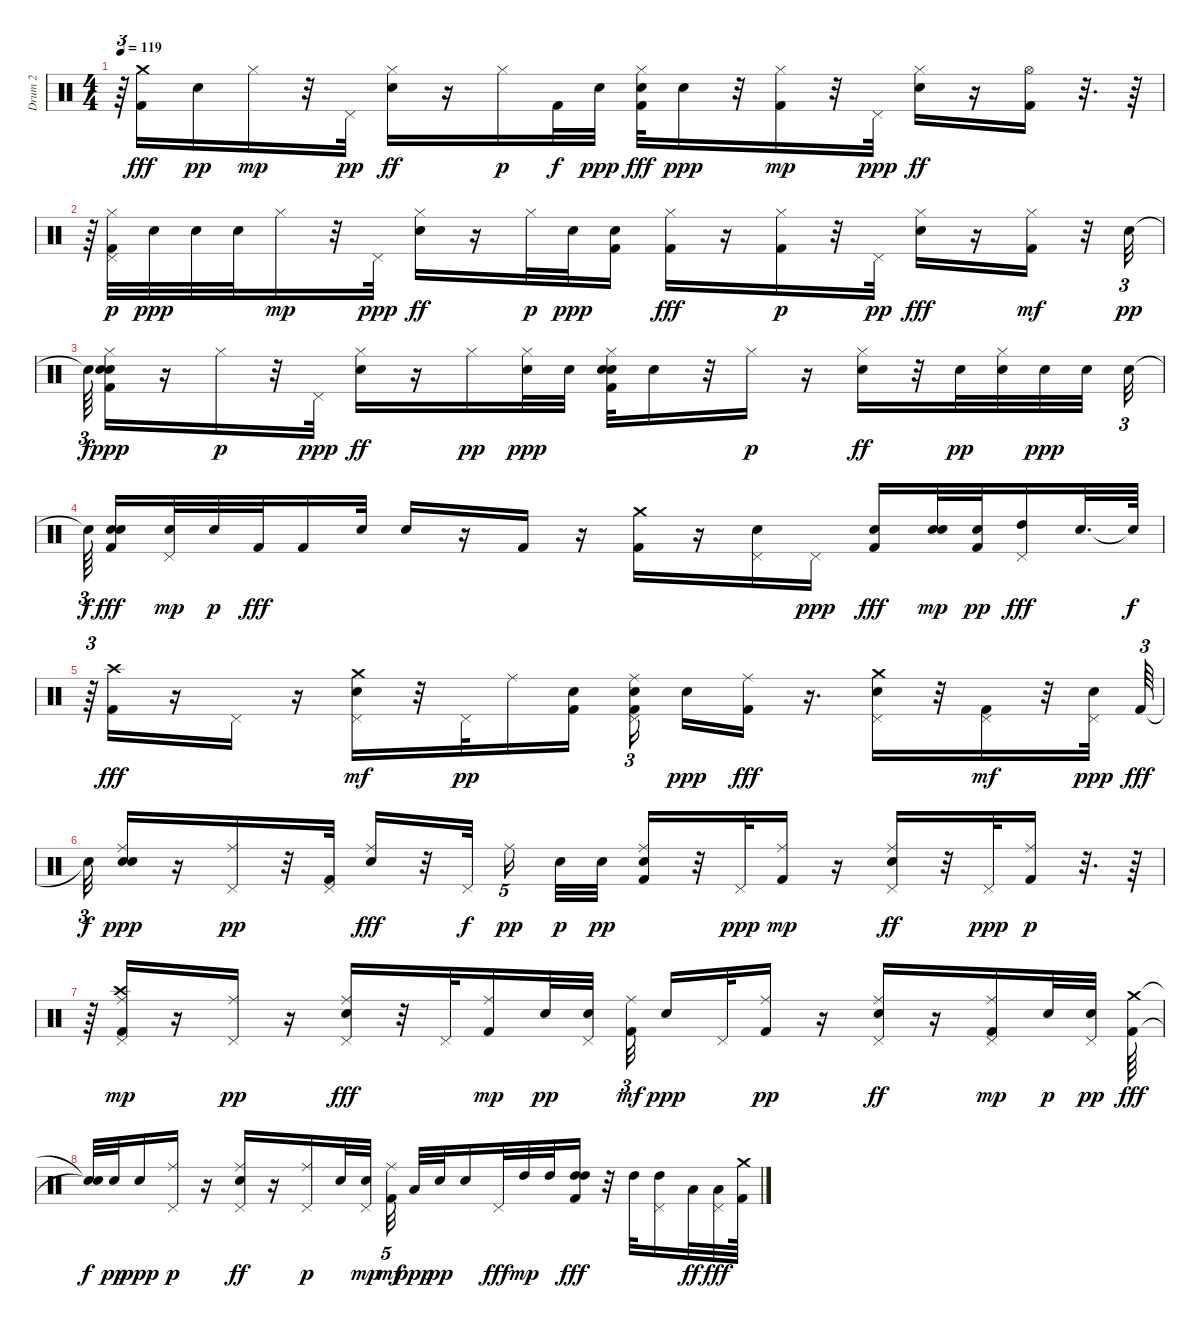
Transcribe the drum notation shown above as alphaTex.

\track ("Drum 2                          " "Drum 2    ") {instrument percussion}
\staff {score}
\articulation defaults
\ts (4 4)
\tempo 119
\clef neutral
\ks c
r.64{tu (3 2) dy f} ("Crash medium (hit)" "Kick (hit) 2").16{dy fff} "Snare (hit) 2".16{dy pp} "Hi-Hat (closed)".16{dy mp} r.32 "Pedal Hi-Hat (hit)".32{dy pp} ("Snare (hit) 2" "Hi-Hat (closed)").16{dy ff} r.16 "Hi-Hat (closed)".16{dy p} "Kick (hit) 2".32{dy f} "Snare (hit) 2".32{dy ppp} ("Snare (hit) 2" "Kick (hit) 2" "Hi-Hat (closed)").32{dy fff} "Snare (hit) 2".16{dy ppp} r.32 ("Kick (hit) 2" "Hi-Hat (closed)").16{dy mp} r.32 "Pedal Hi-Hat (hit)".32{dy ppp} ("Snare (hit) 2" "Hi-Hat (closed)").16{dy ff} r.16 ("Kick (hit) 2" "Hi-Hat (open)").16 r.32{d} r.64 |
r.64{tu (3 2)} ("Pedal Hi-Hat (hit)" "Kick (hit) 2" "Hi-Hat (closed)").32{dy p} "Snare (hit) 2".32{dy ppp} "Snare (hit) 2".32 "Snare (hit) 2".32 "Hi-Hat (closed)".16{dy mp} r.32 "Pedal Hi-Hat (hit)".32{dy ppp} ("Snare (hit) 2" "Hi-Hat (closed)").16{dy ff} r.16 "Hi-Hat (closed)".32{dy p} "Snare (hit) 2".32{dy ppp} ("Snare (hit) 2" "Kick (hit) 2").16 ("Kick (hit) 2" "Hi-Hat (closed)").16{dy fff} r.16 ("Kick (hit) 2" "Hi-Hat (closed)").16{dy p} r.32 "Pedal Hi-Hat (hit)".32{dy pp} ("Snare (hit) 2" "Hi-Hat (closed)").16{dy fff} r.16 ("Kick (hit) 2" "Hi-Hat (closed)").16{dy mf} r.32 "Snare (hit) 2".32{tu (3 2) dy pp} |
"Snare (hit)"{t}.64{tu (3 2) dy f} ("Snare (hit) 2" "Kick (hit) 2" "Hi-Hat (closed)" "Snare (hit) 2").16{dy ppp} r.16 "Hi-Hat (closed)".16{dy p} r.32 "Pedal Hi-Hat (hit)".32{dy ppp} ("Electric Snare (hit)" "Hi-Hat (closed)").16{dy ff} r.16 "Hi-Hat (closed)".16{dy pp} ("Snare (hit) 2" "Hi-Hat (closed)").32{dy ppp} "Snare (hit) 2".32 ("Snare (hit) 2" "Kick (hit) 2" "Hi-Hat (closed)" "Snare (hit) 2").32 "Snare (hit) 2".16 r.32 "Hi-Hat (closed)".16{dy p} r.16 ("Electric Snare (hit)" "Hi-Hat (closed)").16{dy ff} r.32 "Snare (hit) 2".32{dy pp} ("Hi-Hat (closed)" "Snare (hit) 2").32 "Snare (hit) 2".32{dy ppp} "Snare (hit) 2".32{beam splitsecondary} "Snare (hit) 2".32{tu (3 2)} |
"Snare (hit)"{t}.64{tu (3 2) dy f beam splitsecondary} ("Snare (hit) 2" "Snare (hit) 2" "Kick (hit) 2").16{dy fff} ("Snare (hit) 2" "Pedal Hi-Hat (hit)").32{dy mp} "Snare (hit) 2".32{dy p} "Kick (hit) 2".32{dy fff} "Kick (hit) 2".16 "Electric Snare (hit)".32 "Snare (hit) 2".16 r.16 "Kick (hit) 2".16 r.16 ("Crash medium (hit)" "Kick (hit) 2").16 r.16 ("Pedal Hi-Hat (hit)" "Electric Snare (hit)").16 "Pedal Hi-Hat (hit)".16{dy ppp} ("Kick (hit) 2" "Snare (hit) 2").16{dy fff} ("Snare (hit) 2" "Electric Snare (hit)").32{dy mp} ("Snare (hit) 2" "Kick (hit) 2").32{dy pp} ("Pedal Hi-Hat (hit)" "High Tom (hit)").16{dy fff} "Snare (hit) 2".32{d} "Snare (hit)"{t}.64{dy f} |
r.64{tu (3 2)} ("Kick (hit) 2" "Crash high (hit)").16{dy fff} r.16 "Pedal Hi-Hat (hit)".16 r.16 ("Pedal Hi-Hat (hit)" "Snare (hit) 2" "Crash medium (hit)").16{dy mf} r.32 "Pedal Hi-Hat (hit)".32{dy pp} "Ride (middle)".16 ("Kick (hit) 2" "Snare (hit) 2").16 ("Pedal Hi-Hat (hit)" "Kick (hit) 2" "Ride (middle)" "Snare (hit) 2").16{tu (3 2) beam splitsecondary} "Snare (hit) 2".16{dy ppp} ("Ride (middle)" "Kick (hit) 2").16{dy fff} r.16{d} ("Pedal Hi-Hat (hit)" "Snare (hit) 2" "Crash medium (hit)").16 r.32 ("Pedal Hi-Hat (hit)" "Kick (hit) 2").16{dy mf} r.32 ("Snare (hit) 2" "Pedal Hi-Hat (hit)").32{dy ppp} "Kick (hit) 2".64{tu (3 2) dy fff} |
"Snare (hit)"{t}.32{tu (3 2) dy f} ("Ride (middle)" "Snare (hit) 2" "Snare (hit) 2").16{dy ppp} r.16 ("Pedal Hi-Hat (hit)" "Ride (middle)").16{dy pp} r.32 ("Pedal Hi-Hat (hit)" "Kick (hit) 2").32 ("Electric Snare (hit)" "Ride (middle)").16{dy fff} r.32 "Pedal Hi-Hat (hit)".32{dy f beam splitsecondary} "Ride (middle)".16{tu (5 4) dy pp beam splitsecondary} "Snare (hit) 2".32{dy p} "Snare (hit) 2".32{dy pp} ("Kick (hit) 2" "Ride (middle)" "Snare (hit) 2").16 r.32 "Pedal Hi-Hat (hit)".32{dy ppp} ("Kick (hit) 2" "Ride (middle)").16{dy mp} r.16 ("Pedal Hi-Hat (hit)" "Snare (hit) 2" "Ride (middle)").16{dy ff} r.32 "Pedal Hi-Hat (hit)".32{dy ppp} ("Kick (hit) 2" "Ride (middle)").16{dy p} r.32{d} r.64 |
r.64 ("Kick (hit) 2" "Pedal Hi-Hat (hit)" "Crash high (hit)" "Ride (middle)").16{dy mp} r.16 ("Pedal Hi-Hat (hit)" "Ride (middle)").16{dy pp} r.16 ("Pedal Hi-Hat (hit)" "Ride (middle)" "Snare (hit) 2").16{dy fff} r.32 "Pedal Hi-Hat (hit)".32 ("Ride (middle)" "Kick (hit) 2").16{dy mp} "Snare (hit) 2".32{dy pp} ("Pedal Hi-Hat (hit)" "Snare (hit) 2").32 ("Kick (hit) 2" "Ride (middle)").32{tu (3 2) dy mf beam splitsecondary} "Snare (hit) 2".16{dy ppp} "Pedal Hi-Hat (hit)".32 ("Kick (hit) 2" "Ride (middle)").16{dy pp} r.16 ("Electric Snare (hit)" "Pedal Hi-Hat (hit)" "Ride (middle)").16{dy ff} r.16 ("Pedal Hi-Hat (hit)" "Kick (hit) 2" "Ride (middle)").16{dy mp} "Snare (hit) 2".32{dy p} ("Pedal Hi-Hat (hit)" "Snare (hit) 2").32{dy pp} ("Kick (hit) 2" "Crash medium (hit)").64{dy fff} |
("Snare (hit)"{t} "Snare (hit)"{t}).32{dy f} "Snare (hit) 2".32{dy pp} "Snare (hit) 2".16{dy ppp} ("Pedal Hi-Hat (hit)" "Ride (middle)").16{dy p} r.16 ("Pedal Hi-Hat (hit)" "Snare (hit) 2" "Ride (middle)").16{dy ff} r.16 ("Pedal Hi-Hat (hit)" "Ride (middle)").16{dy p} "Snare (hit) 2".32 ("Snare (hit) 2" "Pedal Hi-Hat (hit)").32{dy mp} ("Kick (hit) 2" "Ride (middle)").32{tu (5 4) dy mf beam splitsecondary} "Low Floor Tom (hit)".32{dy ppp} "Snare (hit) 2".32{dy pp} "Snare (hit) 2".16 "Pedal Hi-Hat (hit)".32{dy fff} "High Tom (hit)".32{dy mp} "High Tom (hit)".32 ("High Tom (hit)" "High Tom (hit)" "Kick (hit) 2").16{dy fff} r.32 "High Tom (hit)".32 ("Pedal Hi-Hat (hit)" "High Tom (hit)").16 "Low Tom (hit)".32{dy ff} ("Pedal Hi-Hat (hit)" "Low Tom (hit)").32{dy fff} ("Kick (hit) 2" "Crash medium (hit)").64
